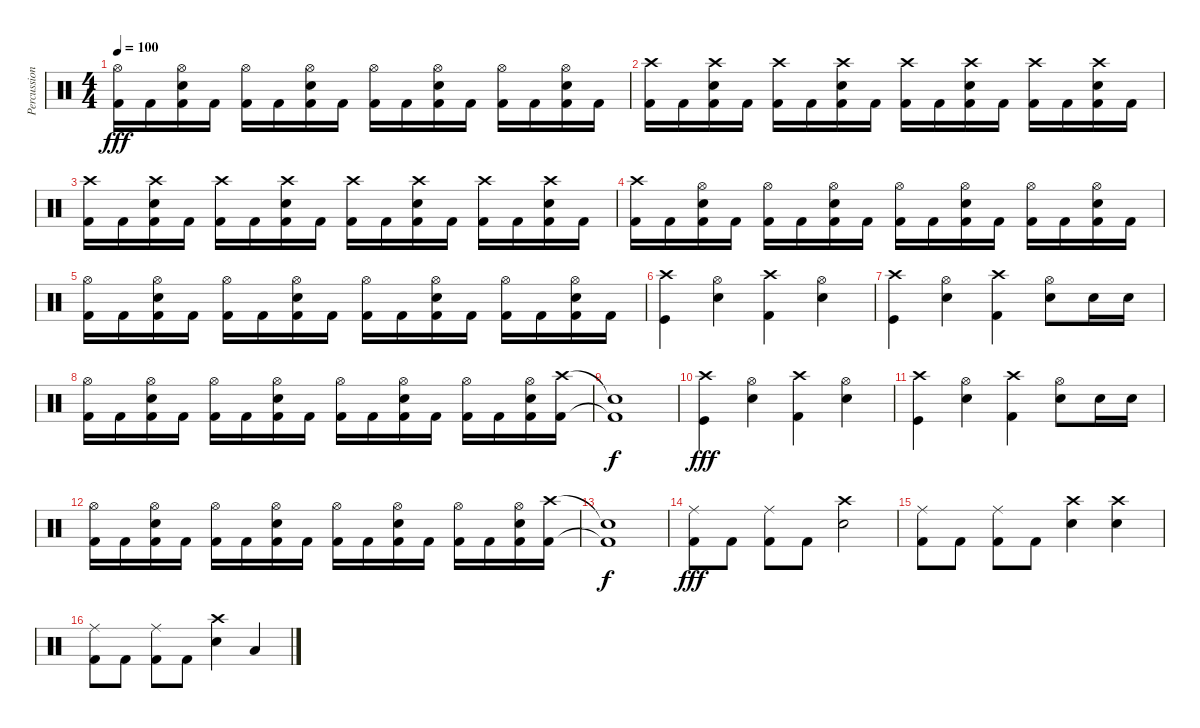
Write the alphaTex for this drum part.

\track ("Percussion" "Percussion") {instrument percussion}
\staff {score}
\articulation defaults
\ts (4 4)
\tempo 100
\clef neutral
\ks c
("Hi-Hat (open)" "Kick (hit) 2").16{dy fff} "Kick (hit) 2".16 ("Hi-Hat (open)" "Snare (hit) 2" "Kick (hit) 2").16 "Kick (hit) 2".16 ("Hi-Hat (open)" "Kick (hit) 2").16 "Kick (hit) 2".16 ("Hi-Hat (open)" "Snare (hit) 2" "Kick (hit) 2").16 "Kick (hit) 2".16 ("Hi-Hat (open)" "Kick (hit) 2").16 "Kick (hit) 2".16 ("Hi-Hat (open)" "Snare (hit) 2" "Kick (hit) 2").16 "Kick (hit) 2".16 ("Hi-Hat (open)" "Kick (hit) 2").16 "Kick (hit) 2".16 ("Hi-Hat (open)" "Snare (hit) 2" "Kick (hit) 2").16 "Kick (hit) 2".16 |
("Crash high (hit)" "Kick (hit) 2").16 "Kick (hit) 2".16 ("Crash high (hit)" "Snare (hit) 2" "Kick (hit) 2").16 "Kick (hit) 2".16 ("Crash high (hit)" "Kick (hit) 2").16 "Kick (hit) 2".16 ("Crash high (hit)" "Snare (hit) 2" "Kick (hit) 2").16 "Kick (hit) 2".16 ("Crash high (hit)" "Kick (hit) 2").16 "Kick (hit) 2".16 ("Crash high (hit)" "Snare (hit) 2" "Kick (hit) 2").16 "Kick (hit) 2".16 ("Crash high (hit)" "Kick (hit) 2").16 "Kick (hit) 2".16 ("Crash high (hit)" "Snare (hit) 2" "Kick (hit) 2").16 "Kick (hit) 2".16 |
("Crash high (hit)" "Kick (hit) 2").16 "Kick (hit) 2".16 ("Crash high (hit)" "Snare (hit) 2" "Kick (hit) 2").16 "Kick (hit) 2".16 ("Crash high (hit)" "Kick (hit) 2").16 "Kick (hit) 2".16 ("Crash high (hit)" "Snare (hit) 2" "Kick (hit) 2").16 "Kick (hit) 2".16 ("Crash high (hit)" "Kick (hit) 2").16 "Kick (hit) 2".16 ("Crash high (hit)" "Snare (hit) 2" "Kick (hit) 2").16 "Kick (hit) 2".16 ("Crash high (hit)" "Kick (hit) 2").16 "Kick (hit) 2".16 ("Crash high (hit)" "Snare (hit) 2" "Kick (hit) 2").16 "Kick (hit) 2".16 |
("Crash high (hit)" "Kick (hit) 2").16 "Kick (hit) 2".16 ("Hi-Hat (open)" "Snare (hit) 2" "Kick (hit) 2").16 "Kick (hit) 2".16 ("Hi-Hat (open)" "Kick (hit) 2").16 "Kick (hit) 2".16 ("Hi-Hat (open)" "Snare (hit) 2" "Kick (hit) 2").16 "Kick (hit) 2".16 ("Hi-Hat (open)" "Kick (hit) 2").16 "Kick (hit) 2".16 ("Hi-Hat (open)" "Snare (hit) 2" "Kick (hit) 2").16 "Kick (hit) 2".16 ("Hi-Hat (open)" "Kick (hit) 2").16 "Kick (hit) 2".16 ("Hi-Hat (open)" "Snare (hit) 2" "Kick (hit) 2").16 "Kick (hit) 2".16 |
("Hi-Hat (open)" "Kick (hit) 2").16 "Kick (hit) 2".16 ("Hi-Hat (open)" "Snare (hit) 2" "Kick (hit) 2").16 "Kick (hit) 2".16 ("Hi-Hat (open)" "Kick (hit) 2").16 "Kick (hit) 2".16 ("Hi-Hat (open)" "Snare (hit) 2" "Kick (hit) 2").16 "Kick (hit) 2".16 ("Hi-Hat (open)" "Kick (hit) 2").16 "Kick (hit) 2".16 ("Hi-Hat (open)" "Snare (hit) 2" "Kick (hit) 2").16 "Kick (hit) 2".16 ("Hi-Hat (open)" "Kick (hit) 2").16 "Kick (hit) 2".16 ("Hi-Hat (open)" "Snare (hit) 2" "Kick (hit) 2").16 "Kick (hit) 2".16 |
("Crash high (hit)" "Kick (hit)").4 ("Hi-Hat (open)" "Snare (hit) 2").4 ("Crash high (hit)" "Kick (hit) 2").4 ("Hi-Hat (open)" "Snare (hit) 2").4 |
("Crash high (hit)" "Kick (hit)").4 ("Hi-Hat (open)" "Snare (hit) 2").4 ("Crash high (hit)" "Kick (hit) 2").4 ("Hi-Hat (open)" "Snare (hit) 2").8 "Snare (hit) 2".16 "Snare (hit) 2".16 |
("Hi-Hat (open)" "Kick (hit) 2").16 "Kick (hit) 2".16 ("Hi-Hat (open)" "Snare (hit) 2" "Kick (hit) 2").16 "Kick (hit) 2".16 ("Hi-Hat (open)" "Kick (hit) 2").16 "Kick (hit) 2".16 ("Hi-Hat (open)" "Snare (hit) 2" "Kick (hit) 2").16 "Kick (hit) 2".16 ("Hi-Hat (open)" "Kick (hit) 2").16 "Kick (hit) 2".16 ("Hi-Hat (open)" "Snare (hit) 2" "Kick (hit) 2").16 "Kick (hit) 2".16 ("Hi-Hat (open)" "Kick (hit) 2").16 "Kick (hit) 2".16 ("Hi-Hat (open)" "Snare (hit) 2" "Kick (hit) 2").16 ("Crash high (hit)" "Kick (hit) 2").16 |
("Snare (hit)"{t} "Kick (hit) 2"{t}).1{dy f} |
("Crash high (hit)" "Kick (hit)").4{dy fff} ("Hi-Hat (open)" "Snare (hit) 2").4 ("Crash high (hit)" "Kick (hit) 2").4 ("Hi-Hat (open)" "Snare (hit) 2").4 |
("Crash high (hit)" "Kick (hit)").4 ("Hi-Hat (open)" "Snare (hit) 2").4 ("Crash high (hit)" "Kick (hit) 2").4 ("Hi-Hat (open)" "Snare (hit) 2").8 "Snare (hit) 2".16 "Snare (hit) 2".16 |
("Hi-Hat (open)" "Kick (hit) 2").16 "Kick (hit) 2".16 ("Hi-Hat (open)" "Snare (hit) 2" "Kick (hit) 2").16 "Kick (hit) 2".16 ("Hi-Hat (open)" "Kick (hit) 2").16 "Kick (hit) 2".16 ("Hi-Hat (open)" "Snare (hit) 2" "Kick (hit) 2").16 "Kick (hit) 2".16 ("Hi-Hat (open)" "Kick (hit) 2").16 "Kick (hit) 2".16 ("Hi-Hat (open)" "Snare (hit) 2" "Kick (hit) 2").16 "Kick (hit) 2".16 ("Hi-Hat (open)" "Kick (hit) 2").16 "Kick (hit) 2".16 ("Hi-Hat (open)" "Snare (hit) 2" "Kick (hit) 2").16 ("Crash high (hit)" "Kick (hit) 2").16 |
("Snare (hit)"{t} "Kick (hit) 2"{t}).1{dy f} |
("Ride (middle)" "Kick (hit) 2").8{dy fff} "Kick (hit) 2".8 ("Ride (middle)" "Kick (hit) 2").8 "Kick (hit) 2".8 ("Crash high (hit)" "Snare (hit) 2").2 |
("Ride (middle)" "Kick (hit) 2").8 "Kick (hit) 2".8 ("Ride (middle)" "Kick (hit) 2").8 "Kick (hit) 2".8 ("Crash high (hit)" "Snare (hit) 2").4 ("Crash high (hit)" "Snare (hit) 2").4 |
("Ride (middle)" "Kick (hit) 2").8 "Kick (hit) 2".8 ("Ride (middle)" "Kick (hit) 2").8 "Kick (hit) 2".8 ("Crash high (hit)" "Snare (hit) 2").4 "Low Tom (hit)".4
